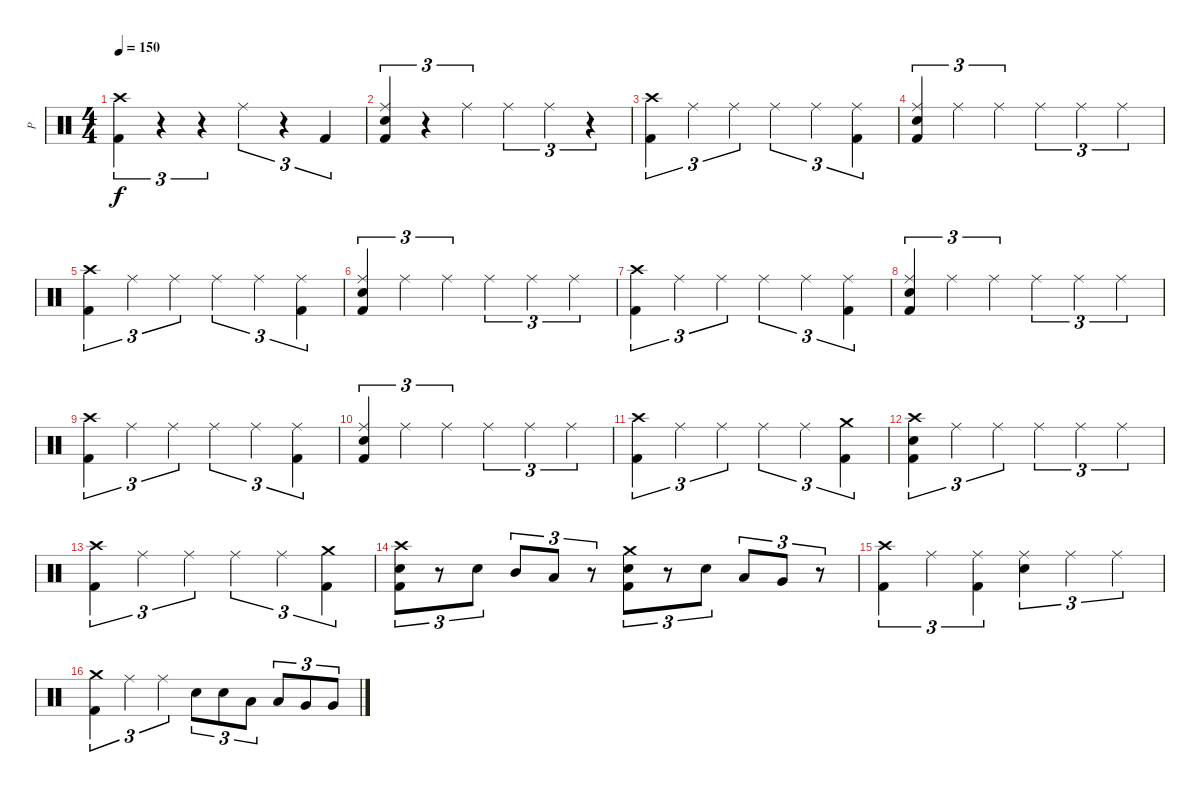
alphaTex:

\track ("P" "P") {instrument percussion}
\staff {score}
\articulation defaults
\ts (4 4)
\tempo 150
\clef neutral
\ks c
("Crash high (hit)" "Kick (hit) 2").4{tu (3 2) dy f} r.4{tu (3 2)} r.4{tu (3 2)} "Ride (middle)".4{tu (3 2)} r.4{tu (3 2)} "Kick (hit) 2".4{tu (3 2)} |
("Ride (middle)" "Electric Snare (hit)" "Kick (hit) 2").4{tu (3 2)} r.4{tu (3 2)} "Ride (middle)".4{tu (3 2)} "Ride (middle)".4{tu (3 2)} "Ride (middle)".4{tu (3 2)} r.4{tu (3 2)} |
("Crash high (hit)" "Kick (hit) 2").4{tu (3 2)} "Ride (middle)".4{tu (3 2)} "Ride (middle)".4{tu (3 2)} "Ride (middle)".4{tu (3 2)} "Ride (middle)".4{tu (3 2)} ("Ride (middle)" "Kick (hit) 2").4{tu (3 2)} |
("Ride (middle)" "Electric Snare (hit)" "Kick (hit) 2").4{tu (3 2)} "Ride (middle)".4{tu (3 2)} "Ride (middle)".4{tu (3 2)} "Ride (middle)".4{tu (3 2)} "Ride (middle)".4{tu (3 2)} "Ride (middle)".4{tu (3 2)} |
("Crash high (hit)" "Kick (hit) 2").4{tu (3 2)} "Ride (middle)".4{tu (3 2)} "Ride (middle)".4{tu (3 2)} "Ride (middle)".4{tu (3 2)} "Ride (middle)".4{tu (3 2)} ("Ride (middle)" "Kick (hit) 2").4{tu (3 2)} |
("Ride (middle)" "Electric Snare (hit)" "Kick (hit) 2").4{tu (3 2)} "Ride (middle)".4{tu (3 2)} "Ride (middle)".4{tu (3 2)} "Ride (middle)".4{tu (3 2)} "Ride (middle)".4{tu (3 2)} "Ride (middle)".4{tu (3 2)} |
("Crash high (hit)" "Kick (hit) 2").4{tu (3 2)} "Ride (middle)".4{tu (3 2)} "Ride (middle)".4{tu (3 2)} "Ride (middle)".4{tu (3 2)} "Ride (middle)".4{tu (3 2)} ("Ride (middle)" "Kick (hit) 2").4{tu (3 2)} |
("Ride (middle)" "Electric Snare (hit)" "Kick (hit) 2").4{tu (3 2)} "Ride (middle)".4{tu (3 2)} "Ride (middle)".4{tu (3 2)} "Ride (middle)".4{tu (3 2)} "Ride (middle)".4{tu (3 2)} "Ride (middle)".4{tu (3 2)} |
("Crash high (hit)" "Kick (hit) 2").4{tu (3 2)} "Ride (middle)".4{tu (3 2)} "Ride (middle)".4{tu (3 2)} "Ride (middle)".4{tu (3 2)} "Ride (middle)".4{tu (3 2)} ("Ride (middle)" "Kick (hit) 2").4{tu (3 2)} |
("Ride (middle)" "Electric Snare (hit)" "Kick (hit) 2").4{tu (3 2)} "Ride (middle)".4{tu (3 2)} "Ride (middle)".4{tu (3 2)} "Ride (middle)".4{tu (3 2)} "Ride (middle)".4{tu (3 2)} "Ride (middle)".4{tu (3 2)} |
("Crash high (hit)" "Kick (hit) 2").4{tu (3 2)} "Ride (middle)".4{tu (3 2)} "Ride (middle)".4{tu (3 2)} "Ride (middle)".4{tu (3 2)} "Ride (middle)".4{tu (3 2)} ("Crash medium (hit)" "Kick (hit) 2").4{tu (3 2)} |
("Crash high (hit)" "Electric Snare (hit)" "Kick (hit) 2").4{tu (3 2)} "Ride (middle)".4{tu (3 2)} "Ride (middle)".4{tu (3 2)} "Ride (middle)".4{tu (3 2)} "Ride (middle)".4{tu (3 2)} "Ride (middle)".4{tu (3 2)} |
("Crash high (hit)" "Kick (hit) 2").4{tu (3 2)} "Ride (middle)".4{tu (3 2)} "Ride (middle)".4{tu (3 2)} "Ride (middle)".4{tu (3 2)} "Ride (middle)".4{tu (3 2)} ("Crash medium (hit)" "Kick (hit) 2").4{tu (3 2)} |
("Crash high (hit)" "Electric Snare (hit)" "Kick (hit) 2").8{tu (3 2)} r.8{tu (3 2)} "Electric Snare (hit)".8{tu (3 2)} "Mid Tom (hit)".8{tu (3 2)} "Low Tom (hit)".8{tu (3 2)} r.8{tu (3 2)} ("Crash medium (hit)" "Electric Snare (hit)" "Kick (hit) 2").8{tu (3 2)} r.8{tu (3 2)} "Electric Snare (hit)".8{tu (3 2)} "Low Tom (hit)".8{tu (3 2)} "Very Low Tom (hit)".8{tu (3 2)} r.8{tu (3 2)} |
("Crash high (hit)" "Kick (hit) 2").4{tu (3 2)} "Ride (middle)".4{tu (3 2)} ("Ride (middle)" "Kick (hit) 2").4{tu (3 2)} ("Ride (middle)" "Electric Snare (hit)").4{tu (3 2)} "Ride (middle)".4{tu (3 2)} "Ride (middle)".4{tu (3 2)} |
("Crash medium (hit)" "Kick (hit) 2").4{tu (3 2)} "Ride (middle)".4{tu (3 2)} "Ride (middle)".4{tu (3 2)} "Electric Snare (hit)".8{tu (3 2)} "Electric Snare (hit)".8{tu (3 2)} "Low Tom (hit)".8{tu (3 2)} "Low Tom (hit)".8{tu (3 2)} "Very Low Tom (hit)".8{tu (3 2)} "Very Low Tom (hit)".8{tu (3 2)}
